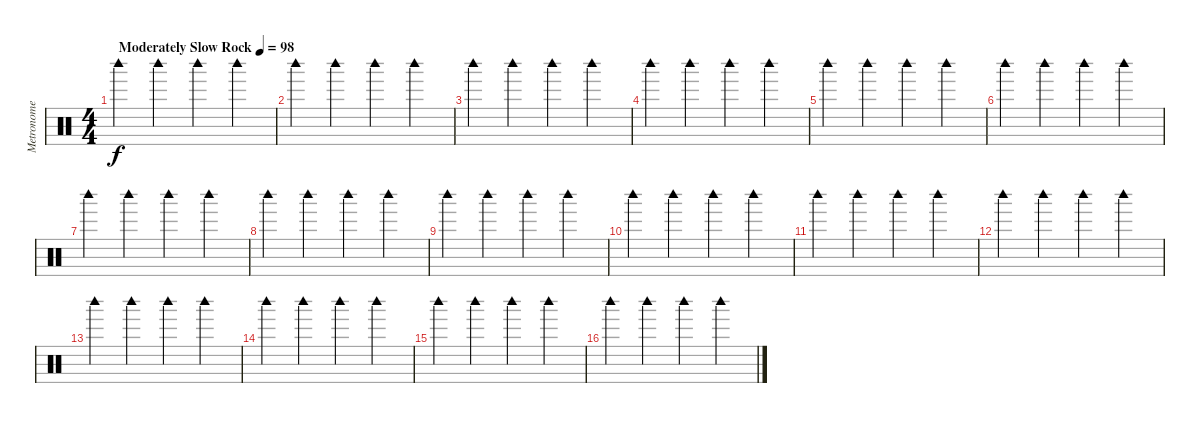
\track ("Metronome" "Metronome") {instrument percussion}
\staff {score}
\articulation defaults
\ts (4 4)
\tempo (98 "Moderately Slow Rock")
\clef neutral
\ks c "Woodblock high (hit)".4{dy f} "Woodblock high (hit)".4 "Woodblock high (hit)".4 "Woodblock high (hit)".4
|
"Woodblock high (hit)".4 "Woodblock high (hit)".4 "Woodblock high (hit)".4 "Woodblock high (hit)".4 |
"Woodblock high (hit)".4 "Woodblock high (hit)".4 "Woodblock high (hit)".4 "Woodblock high (hit)".4 |
"Woodblock high (hit)".4 "Woodblock high (hit)".4 "Woodblock high (hit)".4 "Woodblock high (hit)".4 |
"Woodblock high (hit)".4 "Woodblock high (hit)".4 "Woodblock high (hit)".4 "Woodblock high (hit)".4 |
"Woodblock high (hit)".4 "Woodblock high (hit)".4 "Woodblock high (hit)".4 "Woodblock high (hit)".4 |
"Woodblock high (hit)".4 "Woodblock high (hit)".4 "Woodblock high (hit)".4 "Woodblock high (hit)".4 |
"Woodblock high (hit)".4 "Woodblock high (hit)".4 "Woodblock high (hit)".4 "Woodblock high (hit)".4 |
"Woodblock high (hit)".4 "Woodblock high (hit)".4 "Woodblock high (hit)".4 "Woodblock high (hit)".4 |
"Woodblock high (hit)".4 "Woodblock high (hit)".4 "Woodblock high (hit)".4 "Woodblock high (hit)".4 |
"Woodblock high (hit)".4 "Woodblock high (hit)".4 "Woodblock high (hit)".4 "Woodblock high (hit)".4 |
"Woodblock high (hit)".4 "Woodblock high (hit)".4 "Woodblock high (hit)".4 "Woodblock high (hit)".4 |
"Woodblock high (hit)".4 "Woodblock high (hit)".4 "Woodblock high (hit)".4 "Woodblock high (hit)".4 |
"Woodblock high (hit)".4 "Woodblock high (hit)".4 "Woodblock high (hit)".4 "Woodblock high (hit)".4 |
"Woodblock high (hit)".4 "Woodblock high (hit)".4 "Woodblock high (hit)".4 "Woodblock high (hit)".4 |
"Woodblock high (hit)".4 "Woodblock high (hit)".4 "Woodblock high (hit)".4 "Woodblock high (hit)".4
